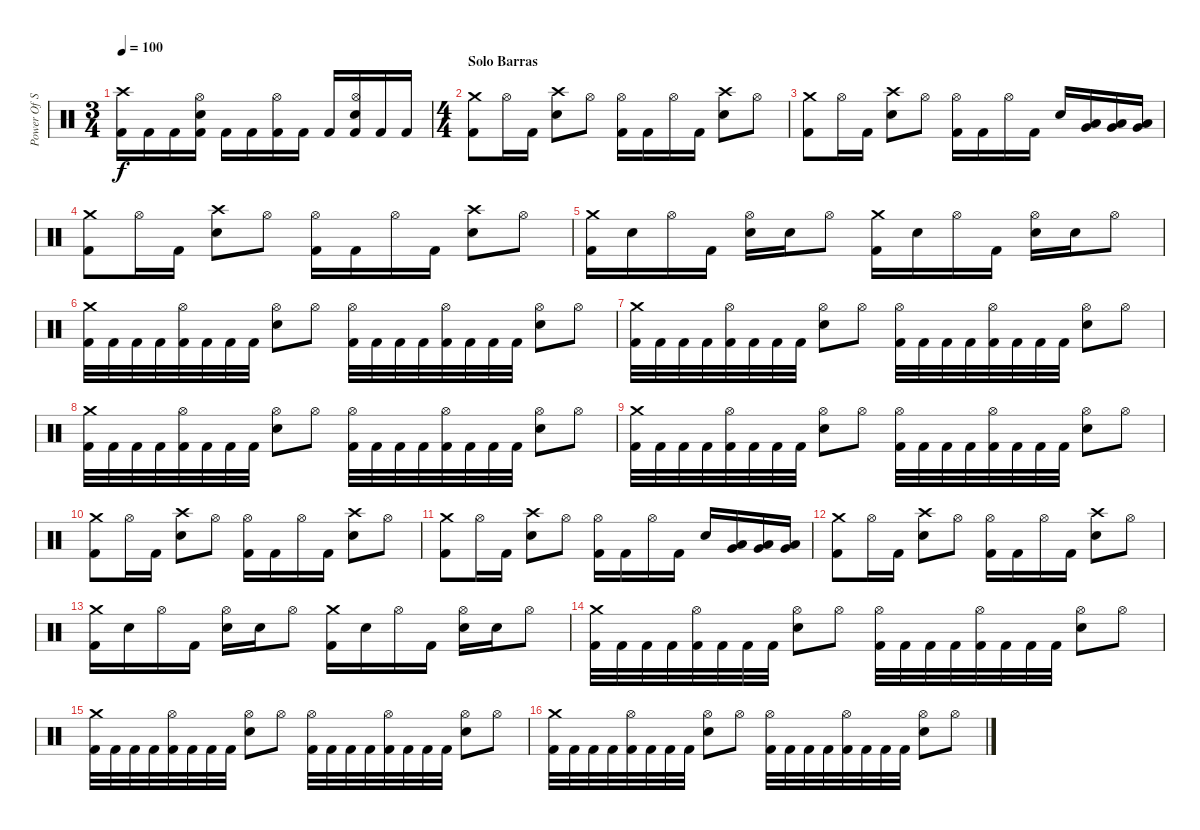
\track ("Power Of Steel" "Power Of S") {instrument percussion}
\staff {score}
\articulation defaults
\ts (3 4)
\tempo 100
\clef neutral
\ks c
("Crash high (hit)" "Kick (hit) 2").16{dy f} "Kick (hit) 2".16 "Kick (hit) 2".16 ("Hi-Hat (open)" "Electric Snare (hit)" "Kick (hit) 2").16 "Kick (hit) 2".16 "Kick (hit) 2".16 ("Hi-Hat (open)" "Kick (hit) 2").16 "Kick (hit) 2".16 "Kick (hit) 2".16 ("Hi-Hat (open)" "Electric Snare (hit)" "Kick (hit) 2").16 "Kick (hit) 2".16 "Kick (hit) 2".16 |
\ts (4 4)
\section ("" "Solo Barras")
("Crash medium (hit)" "Kick (hit) 2").8 "Hi-Hat (open)".16 "Kick (hit) 2".16 ("Crash high (hit)" "Electric Snare (hit)").8 "Hi-Hat (open)".8 ("Hi-Hat (open)" "Kick (hit) 2").16 "Kick (hit) 2".16 "Hi-Hat (open)".16 "Kick (hit) 2".16 ("Crash high (hit)" "Electric Snare (hit)").8 "Hi-Hat (open)".8 |
("Crash medium (hit)" "Kick (hit) 2").8 "Hi-Hat (open)".16 "Kick (hit) 2".16 ("Crash high (hit)" "Electric Snare (hit)").8 "Hi-Hat (open)".8 ("Hi-Hat (open)" "Kick (hit) 2").16 "Kick (hit) 2".16 "Hi-Hat (open)".16 "Kick (hit) 2".16 "Electric Snare (hit)".16 ("Low Tom (hit)" "Very Low Tom (hit)").16 ("Very Low Tom (hit)" "Low Floor Tom (hit)").16 ("Very Low Tom (hit)" "Low Floor Tom (hit)").16 |
("Crash medium (hit)" "Kick (hit) 2").8 "Hi-Hat (open)".16 "Kick (hit) 2".16 ("Crash high (hit)" "Electric Snare (hit)").8 "Hi-Hat (open)".8 ("Hi-Hat (open)" "Kick (hit) 2").16 "Kick (hit) 2".16 "Hi-Hat (open)".16 "Kick (hit) 2".16 ("Crash high (hit)" "Electric Snare (hit)").8 "Hi-Hat (open)".8 |
("Crash medium (hit)" "Kick (hit) 2").16 "Electric Snare (hit)".16 "Hi-Hat (open)".16 "Kick (hit) 2".16 ("Hi-Hat (open)" "Electric Snare (hit)").16 "Electric Snare (hit)".16 "Hi-Hat (open)".8 ("Crash medium (hit)" "Kick (hit) 2").16 "Electric Snare (hit)".16 "Hi-Hat (open)".16 "Kick (hit) 2".16 ("Hi-Hat (open)" "Electric Snare (hit)").16 "Electric Snare (hit)".16 "Hi-Hat (open)".8 |
("Crash medium (hit)" "Kick (hit) 2").32 "Kick (hit) 2".32 "Kick (hit) 2".32 "Kick (hit) 2".32 ("Hi-Hat (open)" "Kick (hit) 2").32 "Kick (hit) 2".32 "Kick (hit) 2".32 "Kick (hit) 2".32 ("Hi-Hat (open)" "Electric Snare (hit)").8 "Hi-Hat (open)".8 ("Hi-Hat (open)" "Kick (hit) 2").32 "Kick (hit) 2".32 "Kick (hit) 2".32 "Kick (hit) 2".32 ("Hi-Hat (open)" "Kick (hit) 2").32 "Kick (hit) 2".32 "Kick (hit) 2".32 "Kick (hit) 2".32 ("Hi-Hat (open)" "Electric Snare (hit)").8 "Hi-Hat (open)".8 |
("Crash medium (hit)" "Kick (hit) 2").32 "Kick (hit) 2".32 "Kick (hit) 2".32 "Kick (hit) 2".32 ("Hi-Hat (open)" "Kick (hit) 2").32 "Kick (hit) 2".32 "Kick (hit) 2".32 "Kick (hit) 2".32 ("Hi-Hat (open)" "Electric Snare (hit)").8 "Hi-Hat (open)".8 ("Hi-Hat (open)" "Kick (hit) 2").32 "Kick (hit) 2".32 "Kick (hit) 2".32 "Kick (hit) 2".32 ("Hi-Hat (open)" "Kick (hit) 2").32 "Kick (hit) 2".32 "Kick (hit) 2".32 "Kick (hit) 2".32 ("Hi-Hat (open)" "Electric Snare (hit)").8 "Hi-Hat (open)".8 |
("Crash medium (hit)" "Kick (hit) 2").32 "Kick (hit) 2".32 "Kick (hit) 2".32 "Kick (hit) 2".32 ("Hi-Hat (open)" "Kick (hit) 2").32 "Kick (hit) 2".32 "Kick (hit) 2".32 "Kick (hit) 2".32 ("Hi-Hat (open)" "Electric Snare (hit)").8 "Hi-Hat (open)".8 ("Hi-Hat (open)" "Kick (hit) 2").32 "Kick (hit) 2".32 "Kick (hit) 2".32 "Kick (hit) 2".32 ("Hi-Hat (open)" "Kick (hit) 2").32 "Kick (hit) 2".32 "Kick (hit) 2".32 "Kick (hit) 2".32 ("Hi-Hat (open)" "Electric Snare (hit)").8 "Hi-Hat (open)".8 |
("Crash medium (hit)" "Kick (hit) 2").32 "Kick (hit) 2".32 "Kick (hit) 2".32 "Kick (hit) 2".32 ("Hi-Hat (open)" "Kick (hit) 2").32 "Kick (hit) 2".32 "Kick (hit) 2".32 "Kick (hit) 2".32 ("Hi-Hat (open)" "Electric Snare (hit)").8 "Hi-Hat (open)".8 ("Hi-Hat (open)" "Kick (hit) 2").32 "Kick (hit) 2".32 "Kick (hit) 2".32 "Kick (hit) 2".32 ("Hi-Hat (open)" "Kick (hit) 2").32 "Kick (hit) 2".32 "Kick (hit) 2".32 "Kick (hit) 2".32 ("Hi-Hat (open)" "Electric Snare (hit)").8 "Hi-Hat (open)".8 |
("Crash medium (hit)" "Kick (hit) 2").8 "Hi-Hat (open)".16 "Kick (hit) 2".16 ("Crash high (hit)" "Electric Snare (hit)").8 "Hi-Hat (open)".8 ("Hi-Hat (open)" "Kick (hit) 2").16 "Kick (hit) 2".16 "Hi-Hat (open)".16 "Kick (hit) 2".16 ("Crash high (hit)" "Electric Snare (hit)").8 "Hi-Hat (open)".8 |
("Crash medium (hit)" "Kick (hit) 2").8 "Hi-Hat (open)".16 "Kick (hit) 2".16 ("Crash high (hit)" "Electric Snare (hit)").8 "Hi-Hat (open)".8 ("Hi-Hat (open)" "Kick (hit) 2").16 "Kick (hit) 2".16 "Hi-Hat (open)".16 "Kick (hit) 2".16 "Electric Snare (hit)".16 ("Low Tom (hit)" "Very Low Tom (hit)").16 ("Very Low Tom (hit)" "Low Floor Tom (hit)").16 ("Very Low Tom (hit)" "Low Floor Tom (hit)").16 |
("Crash medium (hit)" "Kick (hit) 2").8 "Hi-Hat (open)".16 "Kick (hit) 2".16 ("Crash high (hit)" "Electric Snare (hit)").8 "Hi-Hat (open)".8 ("Hi-Hat (open)" "Kick (hit) 2").16 "Kick (hit) 2".16 "Hi-Hat (open)".16 "Kick (hit) 2".16 ("Crash high (hit)" "Electric Snare (hit)").8 "Hi-Hat (open)".8 |
("Crash medium (hit)" "Kick (hit) 2").16 "Electric Snare (hit)".16 "Hi-Hat (open)".16 "Kick (hit) 2".16 ("Hi-Hat (open)" "Electric Snare (hit)").16 "Electric Snare (hit)".16 "Hi-Hat (open)".8 ("Crash medium (hit)" "Kick (hit) 2").16 "Electric Snare (hit)".16 "Hi-Hat (open)".16 "Kick (hit) 2".16 ("Hi-Hat (open)" "Electric Snare (hit)").16 "Electric Snare (hit)".16 "Hi-Hat (open)".8 |
("Crash medium (hit)" "Kick (hit) 2").32 "Kick (hit) 2".32 "Kick (hit) 2".32 "Kick (hit) 2".32 ("Hi-Hat (open)" "Kick (hit) 2").32 "Kick (hit) 2".32 "Kick (hit) 2".32 "Kick (hit) 2".32 ("Hi-Hat (open)" "Electric Snare (hit)").8 "Hi-Hat (open)".8 ("Hi-Hat (open)" "Kick (hit) 2").32 "Kick (hit) 2".32 "Kick (hit) 2".32 "Kick (hit) 2".32 ("Hi-Hat (open)" "Kick (hit) 2").32 "Kick (hit) 2".32 "Kick (hit) 2".32 "Kick (hit) 2".32 ("Hi-Hat (open)" "Electric Snare (hit)").8 "Hi-Hat (open)".8 |
("Crash medium (hit)" "Kick (hit) 2").32 "Kick (hit) 2".32 "Kick (hit) 2".32 "Kick (hit) 2".32 ("Hi-Hat (open)" "Kick (hit) 2").32 "Kick (hit) 2".32 "Kick (hit) 2".32 "Kick (hit) 2".32 ("Hi-Hat (open)" "Electric Snare (hit)").8 "Hi-Hat (open)".8 ("Hi-Hat (open)" "Kick (hit) 2").32 "Kick (hit) 2".32 "Kick (hit) 2".32 "Kick (hit) 2".32 ("Hi-Hat (open)" "Kick (hit) 2").32 "Kick (hit) 2".32 "Kick (hit) 2".32 "Kick (hit) 2".32 ("Hi-Hat (open)" "Electric Snare (hit)").8 "Hi-Hat (open)".8 |
("Crash medium (hit)" "Kick (hit) 2").32 "Kick (hit) 2".32 "Kick (hit) 2".32 "Kick (hit) 2".32 ("Hi-Hat (open)" "Kick (hit) 2").32 "Kick (hit) 2".32 "Kick (hit) 2".32 "Kick (hit) 2".32 ("Hi-Hat (open)" "Electric Snare (hit)").8 "Hi-Hat (open)".8 ("Hi-Hat (open)" "Kick (hit) 2").32 "Kick (hit) 2".32 "Kick (hit) 2".32 "Kick (hit) 2".32 ("Hi-Hat (open)" "Kick (hit) 2").32 "Kick (hit) 2".32 "Kick (hit) 2".32 "Kick (hit) 2".32 ("Hi-Hat (open)" "Electric Snare (hit)").8 "Hi-Hat (open)".8
